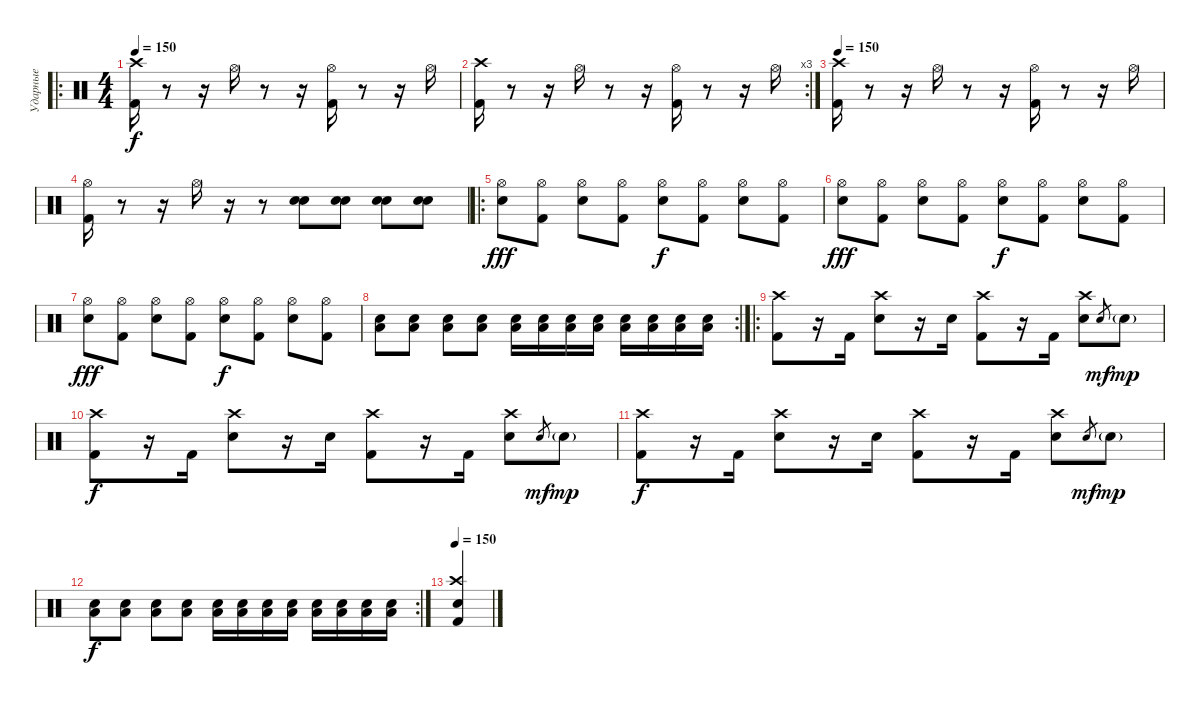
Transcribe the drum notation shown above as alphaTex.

\track ("Ударные" "Ударные") {instrument percussion}
\staff {score}
\articulation defaults
\ro
\ts (4 4)
\tempo 150
\clef neutral
\ks c
("Kick (hit) 2" "Crash high (hit)").16{dy f} r.8 r.16 "Hi-Hat (open)".16 r.8 r.16 ("Hi-Hat (open)" "Kick (hit) 2").16 r.8 r.16 "Hi-Hat (open)".16 |
\rc 3
("Kick (hit) 2" "Crash high (hit)").16 r.8 r.16 "Hi-Hat (open)".16 r.8 r.16 ("Hi-Hat (open)" "Kick (hit) 2").16 r.8 r.16 "Hi-Hat (open)".16 |
\tempo 150
("Kick (hit) 2" "Crash high (hit)").16 r.8 r.16 "Hi-Hat (open)".16 r.8 r.16 ("Hi-Hat (open)" "Kick (hit) 2").16 r.8 r.16 "Hi-Hat (open)".16 |
("Kick (hit) 2" "Hi-Hat (open)").16 r.8 r.16 "Hi-Hat (open)".16 r.16 r.8 ("Snare (hit) 2" "Electric Snare (hit)").8 ("Snare (hit) 2" "Electric Snare (hit)").8 ("Snare (hit) 2" "Electric Snare (hit)").8 ("Snare (hit) 2" "Electric Snare (hit)").8 |
\ro
("Hi-Hat (open)" "Snare (hit) 2").8{dy fff} ("Hi-Hat (open)" "Kick (hit) 2").8 ("Hi-Hat (open)" "Snare (hit) 2").8 ("Hi-Hat (open)" "Kick (hit) 2").8 ("Hi-Hat (open)" "Snare (hit) 2").8{dy f} ("Hi-Hat (open)" "Kick (hit) 2").8 ("Hi-Hat (open)" "Snare (hit) 2").8 ("Hi-Hat (open)" "Kick (hit) 2").8 |
("Hi-Hat (open)" "Snare (hit) 2").8{dy fff} ("Hi-Hat (open)" "Kick (hit) 2").8 ("Hi-Hat (open)" "Snare (hit) 2").8 ("Hi-Hat (open)" "Kick (hit) 2").8 ("Hi-Hat (open)" "Snare (hit) 2").8{dy f} ("Hi-Hat (open)" "Kick (hit) 2").8 ("Hi-Hat (open)" "Snare (hit) 2").8 ("Hi-Hat (open)" "Kick (hit) 2").8 |
("Hi-Hat (open)" "Snare (hit) 2").8{dy fff} ("Hi-Hat (open)" "Kick (hit) 2").8 ("Hi-Hat (open)" "Snare (hit) 2").8 ("Hi-Hat (open)" "Kick (hit) 2").8 ("Hi-Hat (open)" "Snare (hit) 2").8{dy f} ("Hi-Hat (open)" "Kick (hit) 2").8 ("Hi-Hat (open)" "Snare (hit) 2").8 ("Hi-Hat (open)" "Kick (hit) 2").8 |
\rc 2
("Low Tom (hit)" "Snare (hit) 2").8 ("Low Tom (hit)" "Snare (hit) 2").8 ("Low Tom (hit)" "Snare (hit) 2").8 ("Low Tom (hit)" "Snare (hit) 2").8 ("Low Tom (hit)" "Snare (hit) 2").16 ("Low Tom (hit)" "Snare (hit) 2").16 ("Low Tom (hit)" "Snare (hit) 2").16 ("Low Tom (hit)" "Snare (hit) 2").16 ("Low Tom (hit)" "Snare (hit) 2").16 ("Low Tom (hit)" "Snare (hit) 2").16 ("Low Tom (hit)" "Snare (hit) 2").16 ("Low Tom (hit)" "Snare (hit) 2").16 |
\ro
("Crash high (hit)" "Kick (hit) 2").8 r.16 "Kick (hit) 2".16 ("Crash high (hit)" "Electric Snare (hit)").8 r.16 "Electric Snare (hit)".16 ("Crash high (hit)" "Kick (hit) 2").8 r.16 "Kick (hit) 2".16 ("Crash high (hit)" "Electric Snare (hit)").8 "Electric Snare (hit)".8{gr dy mf} "Electric Snare (hit)"{g}.8{dy mp} |
("Crash high (hit)" "Kick (hit) 2").8{dy f} r.16 "Kick (hit) 2".16 ("Crash high (hit)" "Electric Snare (hit)").8 r.16 "Electric Snare (hit)".16 ("Crash high (hit)" "Kick (hit) 2").8 r.16 "Kick (hit) 2".16 ("Crash high (hit)" "Electric Snare (hit)").8 "Electric Snare (hit)".8{gr dy mf} "Electric Snare (hit)"{g}.8{dy mp} |
("Crash high (hit)" "Kick (hit) 2").8{dy f} r.16 "Kick (hit) 2".16 ("Crash high (hit)" "Electric Snare (hit)").8 r.16 "Electric Snare (hit)".16 ("Crash high (hit)" "Kick (hit) 2").8 r.16 "Kick (hit) 2".16 ("Crash high (hit)" "Electric Snare (hit)").8 "Electric Snare (hit)".8{gr dy mf} "Electric Snare (hit)"{g}.8{dy mp} |
\rc 2
("Low Tom (hit)" "Snare (hit) 2").8{dy f} ("Low Tom (hit)" "Snare (hit) 2").8 ("Low Tom (hit)" "Snare (hit) 2").8 ("Low Tom (hit)" "Snare (hit) 2").8 ("Low Tom (hit)" "Snare (hit) 2").16 ("Low Tom (hit)" "Snare (hit) 2").16 ("Low Tom (hit)" "Snare (hit) 2").16 ("Low Tom (hit)" "Snare (hit) 2").16 ("Low Tom (hit)" "Snare (hit) 2").16 ("Low Tom (hit)" "Snare (hit) 2").16 ("Low Tom (hit)" "Snare (hit) 2").16 ("Low Tom (hit)" "Snare (hit) 2").16 |
\tempo 150
("Electric Snare (hit)" "Kick (hit) 2" "Crash high (hit)").4
